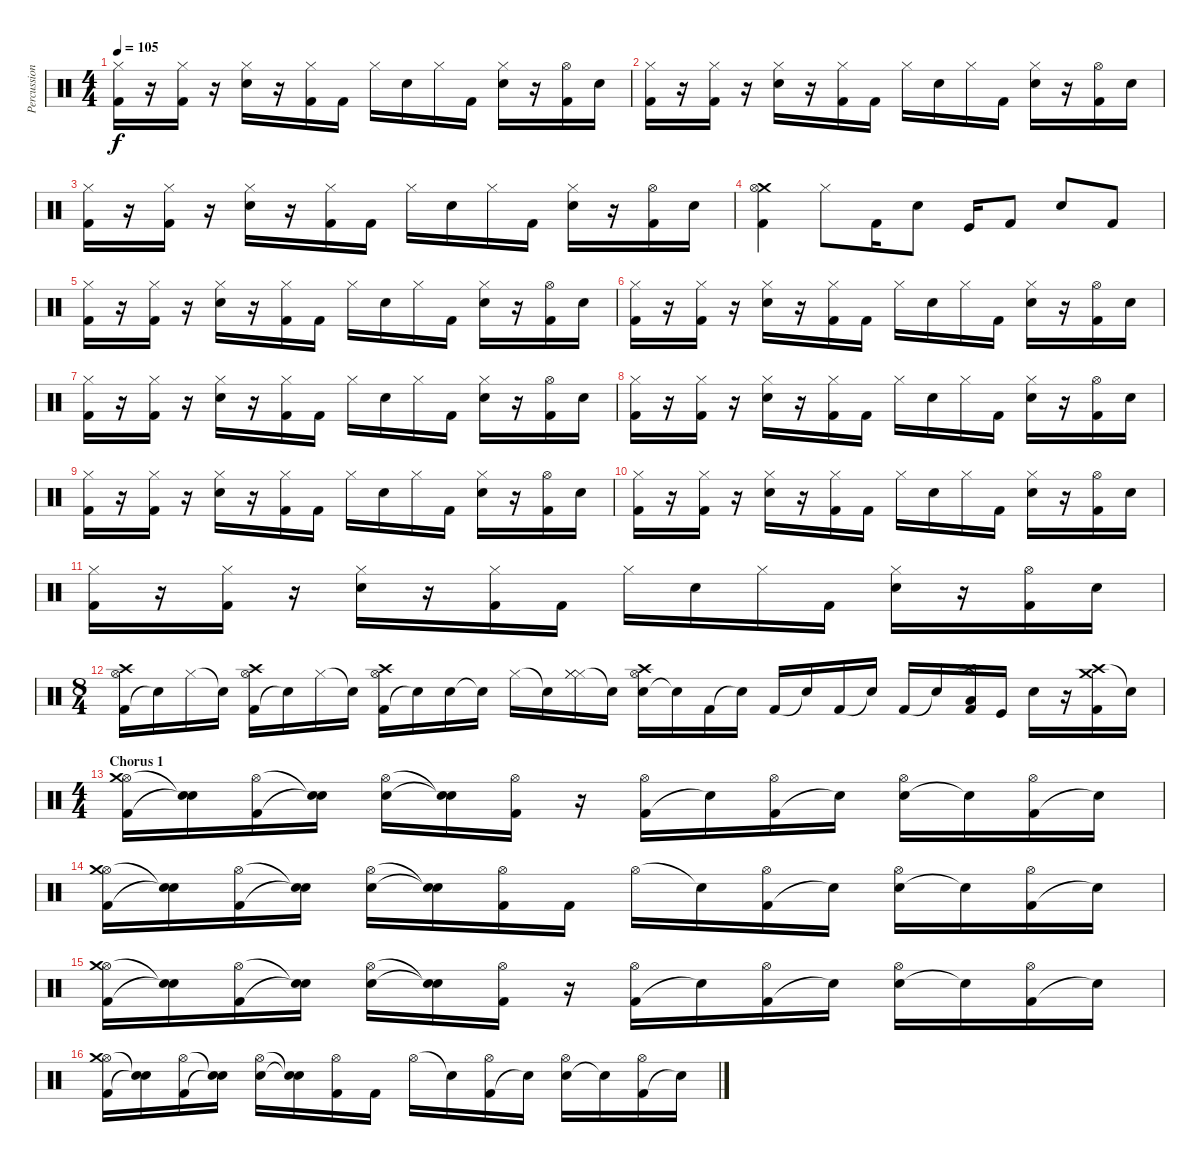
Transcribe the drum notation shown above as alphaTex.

\track ("Percussion" "Percussion") {instrument percussion}
\staff {score}
\articulation defaults
\ts (4 4)
\tempo 105
\clef neutral
\ks c
("Hi-Hat (closed)" "Kick (hit) 2").16{dy f} r.16 ("Hi-Hat (closed)" "Kick (hit) 2").16 r.16 ("Hi-Hat (closed)" "Electric Snare (hit)").16 r.16 ("Hi-Hat (closed)" "Kick (hit) 2").16 "Kick (hit) 2".16 "Hi-Hat (closed)".16 "Electric Snare (hit)".16 "Hi-Hat (closed)".16 "Kick (hit) 2".16 ("Hi-Hat (closed)" "Electric Snare (hit)").16 r.16 ("Hi-Hat (open)" "Kick (hit) 2").16 "Electric Snare (hit)".16 |
("Hi-Hat (closed)" "Kick (hit) 2").16 r.16 ("Hi-Hat (closed)" "Kick (hit) 2").16 r.16 ("Hi-Hat (closed)" "Electric Snare (hit)").16 r.16 ("Hi-Hat (closed)" "Kick (hit) 2").16 "Kick (hit) 2".16 "Hi-Hat (closed)".16 "Electric Snare (hit)".16 "Hi-Hat (closed)".16 "Kick (hit) 2".16 ("Hi-Hat (closed)" "Electric Snare (hit)").16 r.16 ("Hi-Hat (open)" "Kick (hit) 2").16 "Electric Snare (hit)".16 |
("Hi-Hat (closed)" "Kick (hit) 2").16 r.16 ("Hi-Hat (closed)" "Kick (hit) 2").16 r.16 ("Hi-Hat (closed)" "Electric Snare (hit)").16 r.16 ("Hi-Hat (closed)" "Kick (hit) 2").16 "Kick (hit) 2".16 "Hi-Hat (closed)".16 "Electric Snare (hit)".16 "Hi-Hat (closed)".16 "Kick (hit) 2".16 ("Hi-Hat (closed)" "Electric Snare (hit)").16 r.16 ("Hi-Hat (open)" "Kick (hit) 2").16 "Electric Snare (hit)".16 |
("Crash medium (hit)" "Kick (hit) 2" "Hi-Hat (open)").4 "Hi-Hat (closed)".8 "Kick (hit) 2".16 "Snare (hit) 2".8 "Kick (hit)".16 "Kick (hit) 2".8 "Snare (hit) 2".8 "Kick (hit) 2".8 |
("Hi-Hat (closed)" "Kick (hit) 2").16 r.16 ("Hi-Hat (closed)" "Kick (hit) 2").16 r.16 ("Hi-Hat (closed)" "Electric Snare (hit)").16 r.16 ("Hi-Hat (closed)" "Kick (hit) 2").16 "Kick (hit) 2".16 "Hi-Hat (closed)".16 "Electric Snare (hit)".16 "Hi-Hat (closed)".16 "Kick (hit) 2".16 ("Hi-Hat (closed)" "Electric Snare (hit)").16 r.16 ("Hi-Hat (open)" "Kick (hit) 2").16 "Electric Snare (hit)".16 |
("Hi-Hat (closed)" "Kick (hit) 2").16 r.16 ("Hi-Hat (closed)" "Kick (hit) 2").16 r.16 ("Hi-Hat (closed)" "Electric Snare (hit)").16 r.16 ("Hi-Hat (closed)" "Kick (hit) 2").16 "Kick (hit) 2".16 "Hi-Hat (closed)".16 "Electric Snare (hit)".16 "Hi-Hat (closed)".16 "Kick (hit) 2".16 ("Hi-Hat (closed)" "Electric Snare (hit)").16 r.16 ("Hi-Hat (open)" "Kick (hit) 2").16 "Electric Snare (hit)".16 |
("Hi-Hat (closed)" "Kick (hit) 2").16 r.16 ("Hi-Hat (closed)" "Kick (hit) 2").16 r.16 ("Hi-Hat (closed)" "Electric Snare (hit)").16 r.16 ("Hi-Hat (closed)" "Kick (hit) 2").16 "Kick (hit) 2".16 "Hi-Hat (closed)".16 "Electric Snare (hit)".16 "Hi-Hat (closed)".16 "Kick (hit) 2".16 ("Hi-Hat (closed)" "Electric Snare (hit)").16 r.16 ("Hi-Hat (open)" "Kick (hit) 2").16 "Electric Snare (hit)".16 |
("Hi-Hat (closed)" "Kick (hit) 2").16 r.16 ("Hi-Hat (closed)" "Kick (hit) 2").16 r.16 ("Hi-Hat (closed)" "Electric Snare (hit)").16 r.16 ("Hi-Hat (closed)" "Kick (hit) 2").16 "Kick (hit) 2".16 "Hi-Hat (closed)".16 "Electric Snare (hit)".16 "Hi-Hat (closed)".16 "Kick (hit) 2".16 ("Hi-Hat (closed)" "Electric Snare (hit)").16 r.16 ("Hi-Hat (open)" "Kick (hit) 2").16 "Electric Snare (hit)".16 |
("Hi-Hat (closed)" "Kick (hit) 2").16 r.16 ("Hi-Hat (closed)" "Kick (hit) 2").16 r.16 ("Hi-Hat (closed)" "Electric Snare (hit)").16 r.16 ("Hi-Hat (closed)" "Kick (hit) 2").16 "Kick (hit) 2".16 "Hi-Hat (closed)".16 "Electric Snare (hit)".16 "Hi-Hat (closed)".16 "Kick (hit) 2".16 ("Hi-Hat (closed)" "Electric Snare (hit)").16 r.16 ("Hi-Hat (open)" "Kick (hit) 2").16 "Electric Snare (hit)".16 |
("Hi-Hat (closed)" "Kick (hit) 2").16 r.16 ("Hi-Hat (closed)" "Kick (hit) 2").16 r.16 ("Hi-Hat (closed)" "Electric Snare (hit)").16 r.16 ("Hi-Hat (closed)" "Kick (hit) 2").16 "Kick (hit) 2".16 "Hi-Hat (closed)".16 "Electric Snare (hit)".16 "Hi-Hat (closed)".16 "Kick (hit) 2".16 ("Hi-Hat (closed)" "Electric Snare (hit)").16 r.16 ("Hi-Hat (open)" "Kick (hit) 2").16 "Electric Snare (hit)".16 |
("Hi-Hat (closed)" "Kick (hit) 2").16 r.16 ("Hi-Hat (closed)" "Kick (hit) 2").16 r.16 ("Hi-Hat (closed)" "Electric Snare (hit)").16 r.16 ("Hi-Hat (closed)" "Kick (hit) 2").16 "Kick (hit) 2".16 "Hi-Hat (closed)".16 "Electric Snare (hit)".16 "Hi-Hat (closed)".16 "Kick (hit) 2".16 ("Hi-Hat (closed)" "Electric Snare (hit)").16 r.16 ("Hi-Hat (open)" "Kick (hit) 2").16 "Electric Snare (hit)".16 |
\ts (8 4)
("Kick (hit) 2" "Hi-Hat (open)" "Crash high (hit)").16 "Snare (hit)"{t}.16 "Hi-Hat (closed)".16 "Snare (hit)"{t}.16 ("Kick (hit) 2" "Hi-Hat (open)" "Crash high (hit)").16 "Snare (hit)"{t}.16 "Hi-Hat (closed)".16 "Snare (hit)"{t}.16 ("Kick (hit) 2" "Hi-Hat (open)" "Crash high (hit)").16 "Snare (hit)"{t}.16 "Snare (hit) 2".16 "Snare (hit)"{t}.16 "Hi-Hat (closed)".16 "Snare (hit)"{t}.16 ("Hi-Hat (closed)" "Hi-Hat (closed)" "Hi-Hat (closed)").16 "Snare (hit)"{t}.16 ("Snare (hit) 2" "Hi-Hat (open)" "Crash high (hit)").16 "Snare (hit)"{t}.16 "Kick (hit) 2".16 "Snare (hit)"{t}.16 "Kick (hit) 2".16 "Snare (hit)"{t}.16 "Kick (hit) 2".16 "Snare (hit)"{t}.16 "Kick (hit) 2".16 "Snare (hit)"{t}.16 ("Kick (hit) 2" "Crash high (hit)" "Low Tom (hit)").16 "Kick (hit)".16 "Snare (hit) 2".16 r.16 ("Crash high (hit)" "Crash medium (hit)" "Kick (hit) 2").16 "Snare (hit)"{t}.16 |
\ts (4 4)
\section ("" "Chorus 1")
("Kick (hit) 2" "Hi-Hat (open)" "Crash medium (hit)").16 ("Snare (hit)"{t} "Snare (hit)"{t}).16 ("Kick (hit) 2" "Hi-Hat (open)").16 ("Snare (hit)"{t} "Snare (hit)"{t}).16 ("Electric Snare (hit)" "Hi-Hat (open)").16 ("Snare (hit)"{t} "Snare (hit)"{t}).16 ("Kick (hit) 2" "Hi-Hat (open)").16 r.16 ("Kick (hit) 2" "Hi-Hat (open)").16 "Snare (hit)"{t}.16 ("Kick (hit) 2" "Hi-Hat (open)").16 "Snare (hit)"{t}.16 ("Snare (hit) 2" "Hi-Hat (open)").16 "Snare (hit)"{t}.16 ("Kick (hit) 2" "Hi-Hat (open)").16 "Snare (hit)"{t}.16 |
("Kick (hit) 2" "Hi-Hat (open)" "Crash medium (hit)").16 ("Snare (hit)"{t} "Snare (hit)"{t}).16 ("Kick (hit) 2" "Hi-Hat (open)").16 ("Snare (hit)"{t} "Snare (hit)"{t}).16 ("Electric Snare (hit)" "Hi-Hat (open)").16 ("Snare (hit)"{t} "Snare (hit)"{t}).16 ("Kick (hit) 2" "Hi-Hat (open)").16 "Kick (hit) 2".16 "Hi-Hat (open)".16 "Snare (hit)"{t}.16 ("Kick (hit) 2" "Hi-Hat (open)").16 "Snare (hit)"{t}.16 ("Snare (hit) 2" "Hi-Hat (open)").16 "Snare (hit)"{t}.16 ("Kick (hit) 2" "Hi-Hat (open)").16 "Snare (hit)"{t}.16 |
("Kick (hit) 2" "Hi-Hat (open)" "Crash medium (hit)").16 ("Snare (hit)"{t} "Snare (hit)"{t}).16 ("Kick (hit) 2" "Hi-Hat (open)").16 ("Snare (hit)"{t} "Snare (hit)"{t}).16 ("Electric Snare (hit)" "Hi-Hat (open)").16 ("Snare (hit)"{t} "Snare (hit)"{t}).16 ("Kick (hit) 2" "Hi-Hat (open)").16 r.16 ("Kick (hit) 2" "Hi-Hat (open)").16 "Snare (hit)"{t}.16 ("Kick (hit) 2" "Hi-Hat (open)").16 "Snare (hit)"{t}.16 ("Snare (hit) 2" "Hi-Hat (open)").16 "Snare (hit)"{t}.16 ("Kick (hit) 2" "Hi-Hat (open)").16 "Snare (hit)"{t}.16 |
("Kick (hit) 2" "Hi-Hat (open)" "Crash medium (hit)").16 ("Snare (hit)"{t} "Snare (hit)"{t}).16 ("Kick (hit) 2" "Hi-Hat (open)").16 ("Snare (hit)"{t} "Snare (hit)"{t}).16 ("Electric Snare (hit)" "Hi-Hat (open)").16 ("Snare (hit)"{t} "Snare (hit)"{t}).16 ("Kick (hit) 2" "Hi-Hat (open)").16 "Kick (hit) 2".16 "Hi-Hat (open)".16 "Snare (hit)"{t}.16 ("Kick (hit) 2" "Hi-Hat (open)").16 "Snare (hit)"{t}.16 ("Snare (hit) 2" "Hi-Hat (open)").16 "Snare (hit)"{t}.16 ("Kick (hit) 2" "Hi-Hat (open)").16 "Snare (hit)"{t}.16
